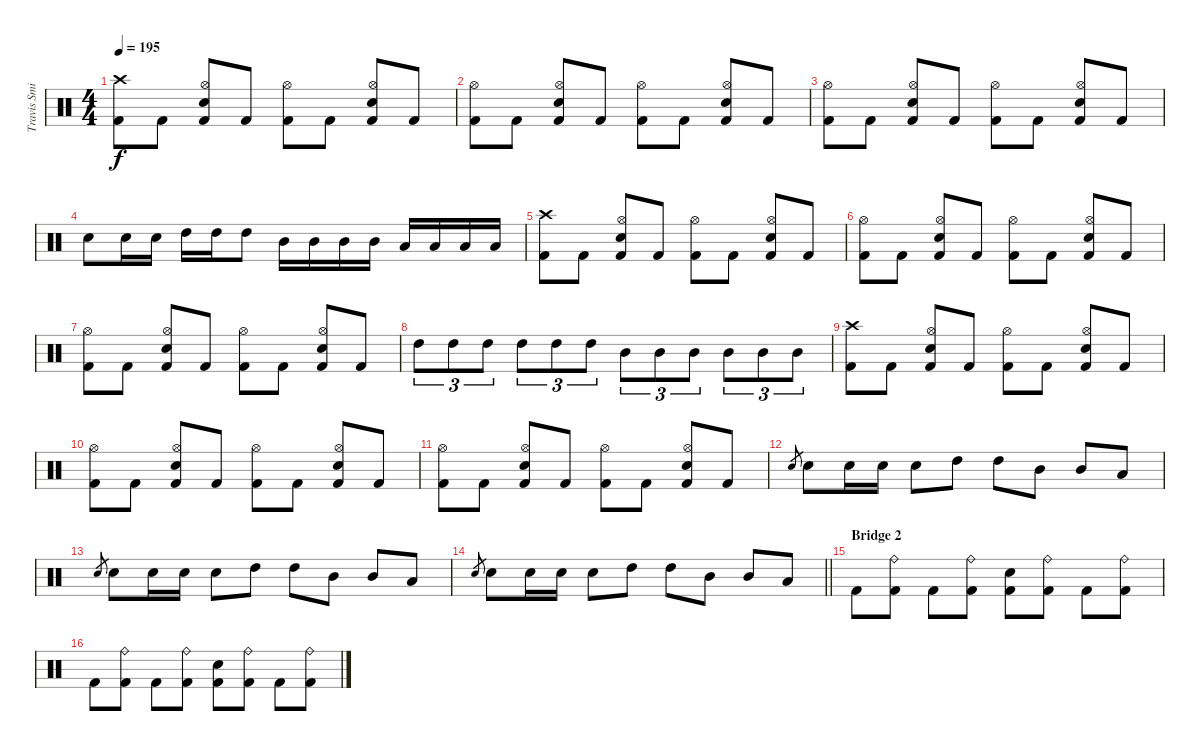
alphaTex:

\track ("Travis Smith" "Travis Smi") {instrument percussion}
\staff {score}
\articulation defaults
\ts (4 4)
\tempo 195
\clef neutral
\ks c
("Crash high (hit)" "Kick (hit) 2").8{dy f} "Kick (hit) 2".8 ("Hi-Hat (open)" "Snare (hit) 2" "Kick (hit) 2").8 "Kick (hit) 2".8 ("Hi-Hat (open)" "Kick (hit) 2").8 "Kick (hit) 2".8 ("Hi-Hat (open)" "Snare (hit) 2" "Kick (hit) 2").8 "Kick (hit) 2".8 |
("Hi-Hat (open)" "Kick (hit) 2").8 "Kick (hit) 2".8 ("Hi-Hat (open)" "Snare (hit) 2" "Kick (hit) 2").8 "Kick (hit) 2".8 ("Hi-Hat (open)" "Kick (hit) 2").8 "Kick (hit) 2".8 ("Hi-Hat (open)" "Snare (hit) 2" "Kick (hit) 2").8 "Kick (hit) 2".8 |
("Hi-Hat (open)" "Kick (hit) 2").8 "Kick (hit) 2".8 ("Hi-Hat (open)" "Snare (hit) 2" "Kick (hit) 2").8 "Kick (hit) 2".8 ("Hi-Hat (open)" "Kick (hit) 2").8 "Kick (hit) 2".8 ("Hi-Hat (open)" "Snare (hit) 2" "Kick (hit) 2").8 "Kick (hit) 2".8 |
"Snare (hit) 2".8 "Snare (hit) 2".16 "Snare (hit) 2".16 "High Tom (hit)".16 "High Tom (hit)".16 "High Tom (hit)".8 "Mid Tom (hit)".16 "Mid Tom (hit)".16 "Mid Tom (hit)".16 "Mid Tom (hit)".16 "Low Tom (hit)".16 "Low Tom (hit)".16 "Low Tom (hit)".16 "Low Tom (hit)".16 |
("Crash high (hit)" "Kick (hit) 2").8 "Kick (hit) 2".8 ("Hi-Hat (open)" "Snare (hit) 2" "Kick (hit) 2").8 "Kick (hit) 2".8 ("Hi-Hat (open)" "Kick (hit) 2").8 "Kick (hit) 2".8 ("Hi-Hat (open)" "Snare (hit) 2" "Kick (hit) 2").8 "Kick (hit) 2".8 |
("Hi-Hat (open)" "Kick (hit) 2").8 "Kick (hit) 2".8 ("Hi-Hat (open)" "Snare (hit) 2" "Kick (hit) 2").8 "Kick (hit) 2".8 ("Hi-Hat (open)" "Kick (hit) 2").8 "Kick (hit) 2".8 ("Hi-Hat (open)" "Snare (hit) 2" "Kick (hit) 2").8 "Kick (hit) 2".8 |
("Hi-Hat (open)" "Kick (hit) 2").8 "Kick (hit) 2".8 ("Hi-Hat (open)" "Snare (hit) 2" "Kick (hit) 2").8 "Kick (hit) 2".8 ("Hi-Hat (open)" "Kick (hit) 2").8 "Kick (hit) 2".8 ("Hi-Hat (open)" "Snare (hit) 2" "Kick (hit) 2").8 "Kick (hit) 2".8 |
"High Tom (hit)".8{tu (3 2)} "High Tom (hit)".8{tu (3 2)} "High Tom (hit)".8{tu (3 2)} "High Tom (hit)".8{tu (3 2)} "High Tom (hit)".8{tu (3 2)} "High Tom (hit)".8{tu (3 2)} "Mid Tom (hit)".8{tu (3 2)} "Mid Tom (hit)".8{tu (3 2)} "Mid Tom (hit)".8{tu (3 2)} "Mid Tom (hit)".8{tu (3 2)} "Mid Tom (hit)".8{tu (3 2)} "Mid Tom (hit)".8{tu (3 2)} |
("Crash high (hit)" "Kick (hit) 2").8 "Kick (hit) 2".8 ("Hi-Hat (open)" "Snare (hit) 2" "Kick (hit) 2").8 "Kick (hit) 2".8 ("Hi-Hat (open)" "Kick (hit) 2").8 "Kick (hit) 2".8 ("Hi-Hat (open)" "Snare (hit) 2" "Kick (hit) 2").8 "Kick (hit) 2".8 |
("Hi-Hat (open)" "Kick (hit) 2").8 "Kick (hit) 2".8 ("Hi-Hat (open)" "Snare (hit) 2" "Kick (hit) 2").8 "Kick (hit) 2".8 ("Hi-Hat (open)" "Kick (hit) 2").8 "Kick (hit) 2".8 ("Hi-Hat (open)" "Snare (hit) 2" "Kick (hit) 2").8 "Kick (hit) 2".8 |
("Hi-Hat (open)" "Kick (hit) 2").8 "Kick (hit) 2".8 ("Hi-Hat (open)" "Snare (hit) 2" "Kick (hit) 2").8 "Kick (hit) 2".8 ("Hi-Hat (open)" "Kick (hit) 2").8 "Kick (hit) 2".8 ("Hi-Hat (open)" "Snare (hit) 2" "Kick (hit) 2").8 "Kick (hit) 2".8 |
"Snare (hit) 2".8{gr} "Snare (hit) 2".8 "Snare (hit) 2".16 "Snare (hit) 2".16 "Snare (hit) 2".8 "High Tom (hit)".8 "High Tom (hit)".8 "Mid Tom (hit)".8 "Mid Tom (hit)".8 "Low Tom (hit)".8 |
"Snare (hit) 2".8{gr} "Snare (hit) 2".8 "Snare (hit) 2".16 "Snare (hit) 2".16 "Snare (hit) 2".8 "High Tom (hit)".8 "High Tom (hit)".8 "Mid Tom (hit)".8 "Mid Tom (hit)".8 "Low Tom (hit)".8 |
\barLineRight lightlight "Snare (hit) 2".8{gr} "Snare (hit) 2".8 "Snare (hit) 2".16 "Snare (hit) 2".16 "Snare (hit) 2".8 "High Tom (hit)".8 "High Tom (hit)".8 "Mid Tom (hit)".8 "Mid Tom (hit)".8 "Low Tom (hit)".8
|
\section ("" "Bridge 2")
"Kick (hit) 2".8 ("Ride (bell)" "Kick (hit) 2").8 "Kick (hit) 2".8 ("Ride (bell)" "Kick (hit) 2").8 ("Snare (hit) 2" "Kick (hit) 2").8 ("Ride (bell)" "Kick (hit) 2").8 "Kick (hit) 2".8 ("Ride (bell)" "Kick (hit) 2").8 |
"Kick (hit) 2".8 ("Ride (bell)" "Kick (hit) 2").8 "Kick (hit) 2".8 ("Ride (bell)" "Kick (hit) 2").8 ("Snare (hit) 2" "Kick (hit) 2").8 ("Ride (bell)" "Kick (hit) 2").8 "Kick (hit) 2".8 ("Ride (bell)" "Kick (hit) 2").8
